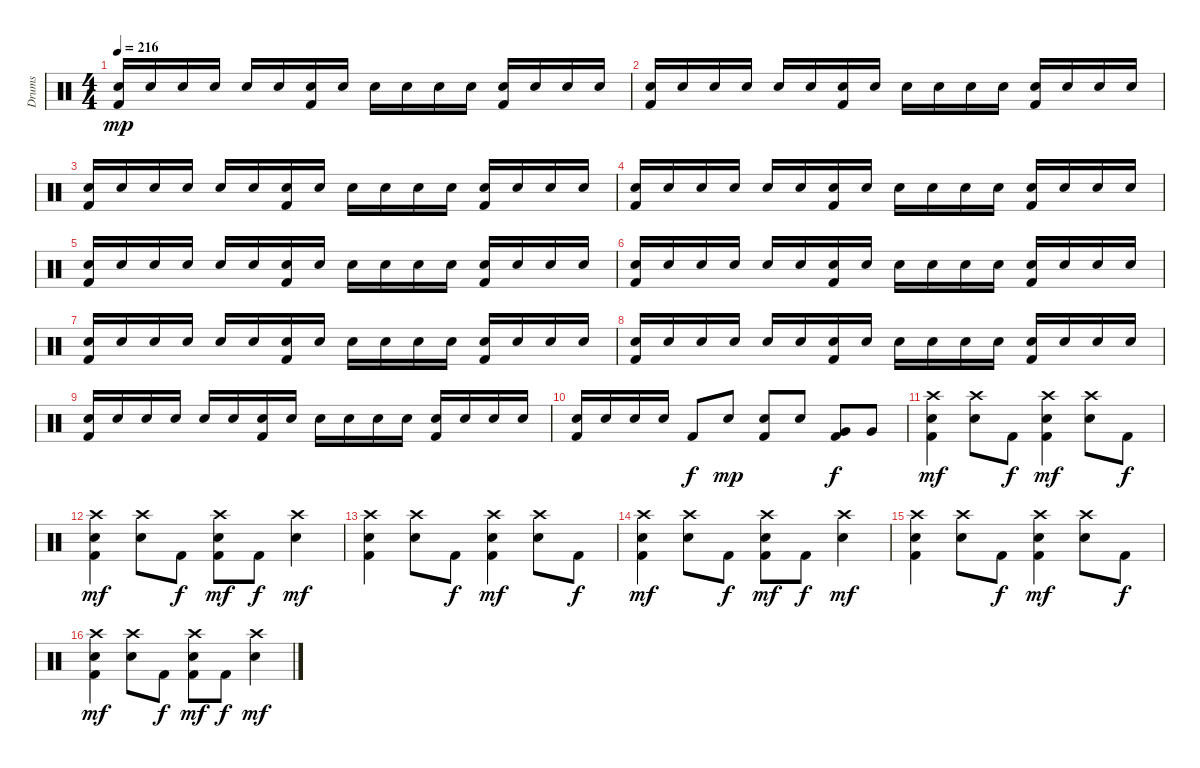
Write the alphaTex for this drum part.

\track ("Drums" "Drums") {instrument percussion}
\staff {score}
\articulation defaults
\ts (4 4)
\tempo 216
\clef neutral
\ks c
("Kick (hit) 2" "Snare (hit) 2").16{dy mp} "Snare (hit) 2".16 "Snare (hit) 2".16 "Snare (hit) 2".16 "Snare (hit) 2".16 "Snare (hit) 2".16 ("Kick (hit) 2" "Snare (hit) 2").16 "Snare (hit) 2".16 "Snare (hit) 2".16 "Snare (hit) 2".16 "Snare (hit) 2".16 "Snare (hit) 2".16 ("Kick (hit) 2" "Snare (hit) 2").16 "Snare (hit) 2".16 "Snare (hit) 2".16 "Snare (hit) 2".16 |
("Kick (hit) 2" "Snare (hit) 2").16 "Snare (hit) 2".16 "Snare (hit) 2".16 "Snare (hit) 2".16 "Snare (hit) 2".16 "Snare (hit) 2".16 ("Kick (hit) 2" "Snare (hit) 2").16 "Snare (hit) 2".16 "Snare (hit) 2".16 "Snare (hit) 2".16 "Snare (hit) 2".16 "Snare (hit) 2".16 ("Kick (hit) 2" "Snare (hit) 2").16 "Snare (hit) 2".16 "Snare (hit) 2".16 "Snare (hit) 2".16 |
("Kick (hit) 2" "Snare (hit) 2").16 "Snare (hit) 2".16 "Snare (hit) 2".16 "Snare (hit) 2".16 "Snare (hit) 2".16 "Snare (hit) 2".16 ("Kick (hit) 2" "Snare (hit) 2").16 "Snare (hit) 2".16 "Snare (hit) 2".16 "Snare (hit) 2".16 "Snare (hit) 2".16 "Snare (hit) 2".16 ("Kick (hit) 2" "Snare (hit) 2").16 "Snare (hit) 2".16 "Snare (hit) 2".16 "Snare (hit) 2".16 |
("Kick (hit) 2" "Snare (hit) 2").16 "Snare (hit) 2".16 "Snare (hit) 2".16 "Snare (hit) 2".16 "Snare (hit) 2".16 "Snare (hit) 2".16 ("Kick (hit) 2" "Snare (hit) 2").16 "Snare (hit) 2".16 "Snare (hit) 2".16 "Snare (hit) 2".16 "Snare (hit) 2".16 "Snare (hit) 2".16 ("Kick (hit) 2" "Snare (hit) 2").16 "Snare (hit) 2".16 "Snare (hit) 2".16 "Snare (hit) 2".16 |
("Kick (hit) 2" "Snare (hit) 2").16 "Snare (hit) 2".16 "Snare (hit) 2".16 "Snare (hit) 2".16 "Snare (hit) 2".16 "Snare (hit) 2".16 ("Kick (hit) 2" "Snare (hit) 2").16 "Snare (hit) 2".16 "Snare (hit) 2".16 "Snare (hit) 2".16 "Snare (hit) 2".16 "Snare (hit) 2".16 ("Kick (hit) 2" "Snare (hit) 2").16 "Snare (hit) 2".16 "Snare (hit) 2".16 "Snare (hit) 2".16 |
("Kick (hit) 2" "Snare (hit) 2").16 "Snare (hit) 2".16 "Snare (hit) 2".16 "Snare (hit) 2".16 "Snare (hit) 2".16 "Snare (hit) 2".16 ("Kick (hit) 2" "Snare (hit) 2").16 "Snare (hit) 2".16 "Snare (hit) 2".16 "Snare (hit) 2".16 "Snare (hit) 2".16 "Snare (hit) 2".16 ("Kick (hit) 2" "Snare (hit) 2").16 "Snare (hit) 2".16 "Snare (hit) 2".16 "Snare (hit) 2".16 |
("Kick (hit) 2" "Snare (hit) 2").16 "Snare (hit) 2".16 "Snare (hit) 2".16 "Snare (hit) 2".16 "Snare (hit) 2".16 "Snare (hit) 2".16 ("Kick (hit) 2" "Snare (hit) 2").16 "Snare (hit) 2".16 "Snare (hit) 2".16 "Snare (hit) 2".16 "Snare (hit) 2".16 "Snare (hit) 2".16 ("Kick (hit) 2" "Snare (hit) 2").16 "Snare (hit) 2".16 "Snare (hit) 2".16 "Snare (hit) 2".16 |
("Kick (hit) 2" "Snare (hit) 2").16 "Snare (hit) 2".16 "Snare (hit) 2".16 "Snare (hit) 2".16 "Snare (hit) 2".16 "Snare (hit) 2".16 ("Kick (hit) 2" "Snare (hit) 2").16 "Snare (hit) 2".16 "Snare (hit) 2".16 "Snare (hit) 2".16 "Snare (hit) 2".16 "Snare (hit) 2".16 ("Kick (hit) 2" "Snare (hit) 2").16 "Snare (hit) 2".16 "Snare (hit) 2".16 "Snare (hit) 2".16 |
("Kick (hit) 2" "Snare (hit) 2").16 "Snare (hit) 2".16 "Snare (hit) 2".16 "Snare (hit) 2".16 "Snare (hit) 2".16 "Snare (hit) 2".16 ("Kick (hit) 2" "Snare (hit) 2").16 "Snare (hit) 2".16 "Snare (hit) 2".16 "Snare (hit) 2".16 "Snare (hit) 2".16 "Snare (hit) 2".16 ("Kick (hit) 2" "Snare (hit) 2").16 "Snare (hit) 2".16 "Snare (hit) 2".16 "Snare (hit) 2".16 |
("Kick (hit) 2" "Snare (hit) 2").16 "Snare (hit) 2".16 "Snare (hit) 2".16 "Snare (hit) 2".16 "Kick (hit) 2".8{dy f} "Snare (hit) 2".8{dy mp} ("Kick (hit) 2" "Snare (hit) 2").8 "Snare (hit) 2".8 ("Kick (hit) 2" "Very Low Tom (hit)").8{dy f} "Very Low Tom (hit)".8 |
("Kick (hit) 2" "Snare (hit) 2" "Crash high (hit)").4{dy mf} ("Snare (hit) 2" "Crash high (hit)").8 "Kick (hit) 2".8{dy f} ("Kick (hit) 2" "Snare (hit) 2" "Crash high (hit)").4{dy mf} ("Snare (hit) 2" "Crash high (hit)").8 "Kick (hit) 2".8{dy f} |
("Kick (hit) 2" "Snare (hit) 2" "Crash high (hit)").4{dy mf} ("Snare (hit) 2" "Crash high (hit)").8 "Kick (hit) 2".8{dy f} ("Kick (hit) 2" "Snare (hit) 2" "Crash high (hit)").8{dy mf} "Kick (hit) 2".8{dy f} ("Snare (hit) 2" "Crash high (hit)").4{dy mf} |
("Kick (hit) 2" "Snare (hit) 2" "Crash high (hit)").4 ("Snare (hit) 2" "Crash high (hit)").8 "Kick (hit) 2".8{dy f} ("Kick (hit) 2" "Snare (hit) 2" "Crash high (hit)").4{dy mf} ("Snare (hit) 2" "Crash high (hit)").8 "Kick (hit) 2".8{dy f} |
("Kick (hit) 2" "Snare (hit) 2" "Crash high (hit)").4{dy mf} ("Snare (hit) 2" "Crash high (hit)").8 "Kick (hit) 2".8{dy f} ("Kick (hit) 2" "Snare (hit) 2" "Crash high (hit)").8{dy mf} "Kick (hit) 2".8{dy f} ("Snare (hit) 2" "Crash high (hit)").4{dy mf} |
("Kick (hit) 2" "Snare (hit) 2" "Crash high (hit)").4 ("Snare (hit) 2" "Crash high (hit)").8 "Kick (hit) 2".8{dy f} ("Kick (hit) 2" "Snare (hit) 2" "Crash high (hit)").4{dy mf} ("Snare (hit) 2" "Crash high (hit)").8 "Kick (hit) 2".8{dy f} |
("Kick (hit) 2" "Snare (hit) 2" "Crash high (hit)").4{dy mf} ("Snare (hit) 2" "Crash high (hit)").8 "Kick (hit) 2".8{dy f} ("Kick (hit) 2" "Snare (hit) 2" "Crash high (hit)").8{dy mf} "Kick (hit) 2".8{dy f} ("Snare (hit) 2" "Crash high (hit)").4{dy mf}
